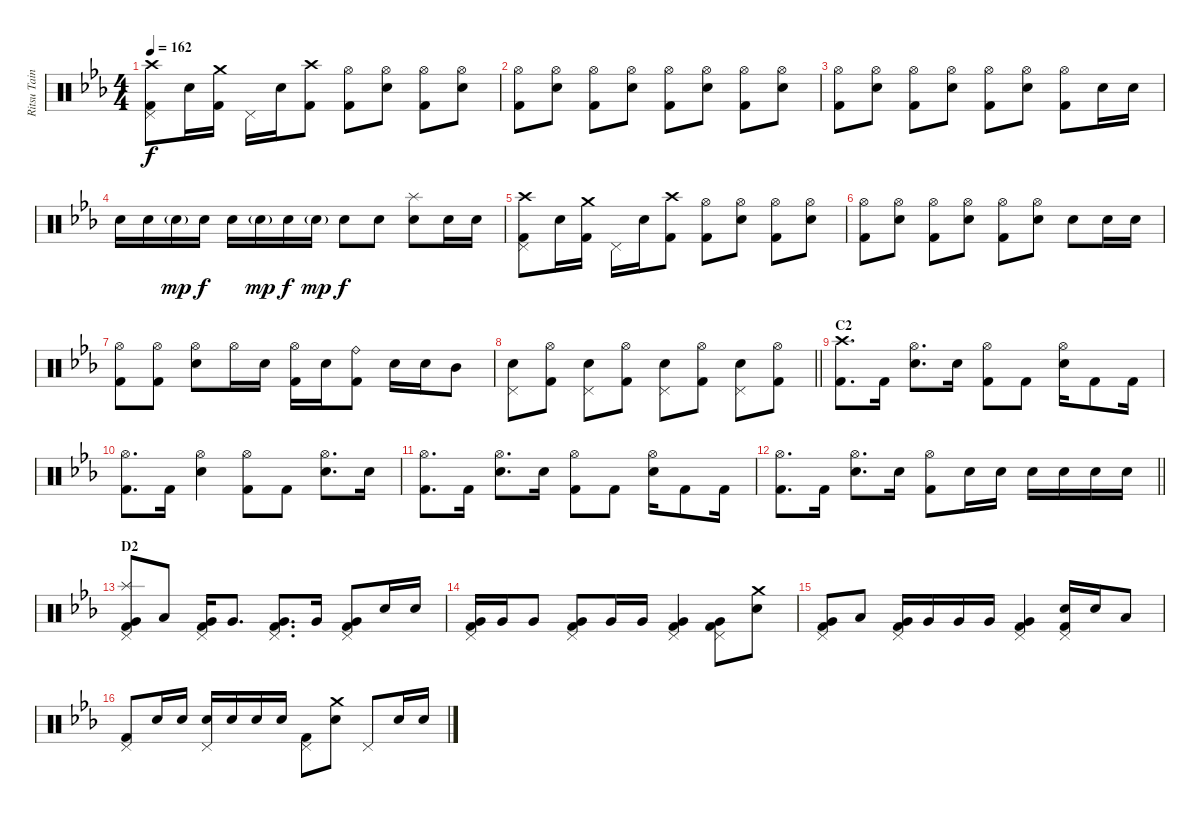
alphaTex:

\track ("Ritsu Tainaka" "Ritsu Tain") {instrument percussion}
\staff {score}
\articulation defaults
\ts (4 4)
\tempo 162
\clef neutral
\ks eb
("Crash high (hit)" "Pedal Hi-Hat (hit)" "Kick (hit) 2").8{dy f} "Electric Snare (hit)".16 ("Crash medium (hit)" "Kick (hit) 2").16 "Pedal Hi-Hat (hit)".16 "Electric Snare (hit)".16 ("Crash high (hit)" "Kick (hit) 2").8 ("Hi-Hat (open)" "Kick (hit) 2").8 ("Hi-Hat (open)" "Electric Snare (hit)").8 ("Hi-Hat (open)" "Kick (hit) 2").8 ("Hi-Hat (open)" "Electric Snare (hit)").8 |
("Hi-Hat (open)" "Kick (hit) 2").8 ("Hi-Hat (open)" "Electric Snare (hit)").8 ("Hi-Hat (open)" "Kick (hit) 2").8 ("Hi-Hat (open)" "Electric Snare (hit)").8 ("Hi-Hat (open)" "Kick (hit) 2").8 ("Hi-Hat (open)" "Electric Snare (hit)").8 ("Hi-Hat (open)" "Kick (hit) 2").8 ("Hi-Hat (open)" "Electric Snare (hit)").8 |
("Hi-Hat (open)" "Kick (hit) 2").8 ("Hi-Hat (open)" "Electric Snare (hit)").8 ("Hi-Hat (open)" "Kick (hit) 2").8 ("Hi-Hat (open)" "Electric Snare (hit)").8 ("Hi-Hat (open)" "Kick (hit) 2").8 ("Hi-Hat (open)" "Electric Snare (hit)").8 ("Hi-Hat (open)" "Kick (hit) 2").8 "Electric Snare (hit)".16 "Electric Snare (hit)".16 |
"Electric Snare (hit)".16 "Electric Snare (hit)".16 "Electric Snare (hit)"{g}.16{dy mp} "Electric Snare (hit)".16{dy f} "Electric Snare (hit)".16 "Electric Snare (hit)"{g}.16{dy mp} "Electric Snare (hit)".16{dy f} "Electric Snare (hit)"{g}.16{dy mp} "Electric Snare (hit)".8{dy f} "Electric Snare (hit)".8 ("Splash (hit)" "Electric Snare (hit)").8 "Electric Snare (hit)".16 "Electric Snare (hit)".16 |
("Crash high (hit)" "Pedal Hi-Hat (hit)" "Kick (hit) 2").8 "Electric Snare (hit)".16 ("Crash medium (hit)" "Kick (hit) 2").16 "Pedal Hi-Hat (hit)".16 "Electric Snare (hit)".16 ("Crash high (hit)" "Kick (hit) 2").8 ("Hi-Hat (open)" "Kick (hit) 2").8 ("Hi-Hat (open)" "Electric Snare (hit)").8 ("Hi-Hat (open)" "Kick (hit) 2").8 ("Hi-Hat (open)" "Electric Snare (hit)").8 |
("Hi-Hat (open)" "Kick (hit) 2").8 ("Hi-Hat (open)" "Electric Snare (hit)").8 ("Hi-Hat (open)" "Kick (hit) 2").8 ("Hi-Hat (open)" "Electric Snare (hit)").8 ("Hi-Hat (open)" "Kick (hit) 2").8 ("Hi-Hat (open)" "Electric Snare (hit)").8 "Electric Snare (hit)".8 "Electric Snare (hit)".16 "Electric Snare (hit)".16 |
("Hi-Hat (open)" "Kick (hit) 2").8 ("Hi-Hat (open)" "Kick (hit) 2").8 ("Hi-Hat (open)" "Electric Snare (hit)").8 "Hi-Hat (open)".16 "Electric Snare (hit)".16 ("Hi-Hat (open)" "Kick (hit) 2").16 "Electric Snare (hit)".16 ("Ride (bell)" "Kick (hit) 2").8 "Electric Snare (hit)".16 "Electric Snare (hit)".16 "Mid Tom (hit)".8 |
\barLineRight lightlight
("Pedal Hi-Hat (hit)" "Electric Snare (hit)").8 ("Hi-Hat (open)" "Kick (hit) 2").8 ("Pedal Hi-Hat (hit)" "Electric Snare (hit)").8 ("Hi-Hat (open)" "Kick (hit) 2").8 ("Pedal Hi-Hat (hit)" "Electric Snare (hit)").8 ("Hi-Hat (open)" "Kick (hit) 2").8 ("Pedal Hi-Hat (hit)" "Electric Snare (hit)").8 ("Hi-Hat (open)" "Kick (hit) 2").8 |
\section ("" "C2")
("Crash high (hit)" "Kick (hit) 2").8{d} "Kick (hit) 2".16 ("Hi-Hat (open)" "Electric Snare (hit)").8{d} "Electric Snare (hit)".16 ("Hi-Hat (open)" "Kick (hit) 2").8 "Kick (hit) 2".8 ("Hi-Hat (open)" "Electric Snare (hit)").16 "Kick (hit) 2".8 "Kick (hit) 2".16 |
("Hi-Hat (open)" "Kick (hit) 2").8{d} "Kick (hit) 2".16 ("Hi-Hat (open)" "Electric Snare (hit)").4 ("Hi-Hat (open)" "Kick (hit) 2").8 "Kick (hit) 2".8 ("Hi-Hat (open)" "Electric Snare (hit)").8{d} "Electric Snare (hit)".16 |
("Hi-Hat (open)" "Kick (hit) 2").8{d} "Kick (hit) 2".16 ("Hi-Hat (open)" "Electric Snare (hit)").8{d} "Electric Snare (hit)".16 ("Hi-Hat (open)" "Kick (hit) 2").8 "Kick (hit) 2".8 ("Hi-Hat (open)" "Electric Snare (hit)").16 "Kick (hit) 2".8 "Kick (hit) 2".16 |
\barLineRight lightlight
("Hi-Hat (open)" "Kick (hit) 2").8{d} "Kick (hit) 2".16 ("Hi-Hat (open)" "Electric Snare (hit)").8{d} "Electric Snare (hit)".16 ("Hi-Hat (open)" "Kick (hit) 2").8 "Electric Snare (hit)".16 "Electric Snare (hit)".16 "Electric Snare (hit)".16 "Electric Snare (hit)".16 "Electric Snare (hit)".16 "Electric Snare (hit)".16 |
\section ("" "D2")
("Splash (hit)" "Pedal Hi-Hat (hit)" "Very Low Tom (hit)" "Kick (hit) 2").8 "Low Tom (hit)".8 ("Pedal Hi-Hat (hit)" "Very Low Tom (hit)" "Kick (hit) 2").16 "Very Low Tom (hit)".8{d} ("Pedal Hi-Hat (hit)" "Very Low Tom (hit)" "Kick (hit) 2").8{d} "Very Low Tom (hit)".16 ("Pedal Hi-Hat (hit)" "Very Low Tom (hit)" "Kick (hit) 2").8 "Electric Snare (hit)".16 "Electric Snare (hit)".16 |
("Pedal Hi-Hat (hit)" "Very Low Tom (hit)" "Kick (hit) 2").16 "Very Low Tom (hit)".16 "Very Low Tom (hit)".8 ("Pedal Hi-Hat (hit)" "Very Low Tom (hit)" "Kick (hit) 2").8 "Very Low Tom (hit)".16 "Very Low Tom (hit)".16 ("Pedal Hi-Hat (hit)" "Very Low Tom (hit)" "Kick (hit) 2").4 ("Pedal Hi-Hat (hit)" "Very Low Tom (hit)" "Kick (hit) 2").8 ("Crash medium (hit)" "Electric Snare (hit)").8 |
("Pedal Hi-Hat (hit)" "Very Low Tom (hit)" "Kick (hit) 2").8 "Low Tom (hit)".8 ("Pedal Hi-Hat (hit)" "Very Low Tom (hit)" "Kick (hit) 2").16 "Very Low Tom (hit)".16 "Very Low Tom (hit)".16 "Very Low Tom (hit)".16 ("Pedal Hi-Hat (hit)" "Very Low Tom (hit)" "Kick (hit) 2").4 ("Pedal Hi-Hat (hit)" "Electric Snare (hit)" "Kick (hit) 2").16 "Electric Snare (hit)".16 "Low Tom (hit)".8 |
("Pedal Hi-Hat (hit)" "Kick (hit) 2").8 "Electric Snare (hit)".16 "Electric Snare (hit)".16 ("Pedal Hi-Hat (hit)" "Electric Snare (hit)").16 "Electric Snare (hit)".16 "Electric Snare (hit)".16 "Electric Snare (hit)".16 ("Pedal Hi-Hat (hit)" "Kick (hit) 2").8 ("Crash medium (hit)" "Electric Snare (hit)").8 "Pedal Hi-Hat (hit)".8 "Electric Snare (hit)".16 "Electric Snare (hit)".16
